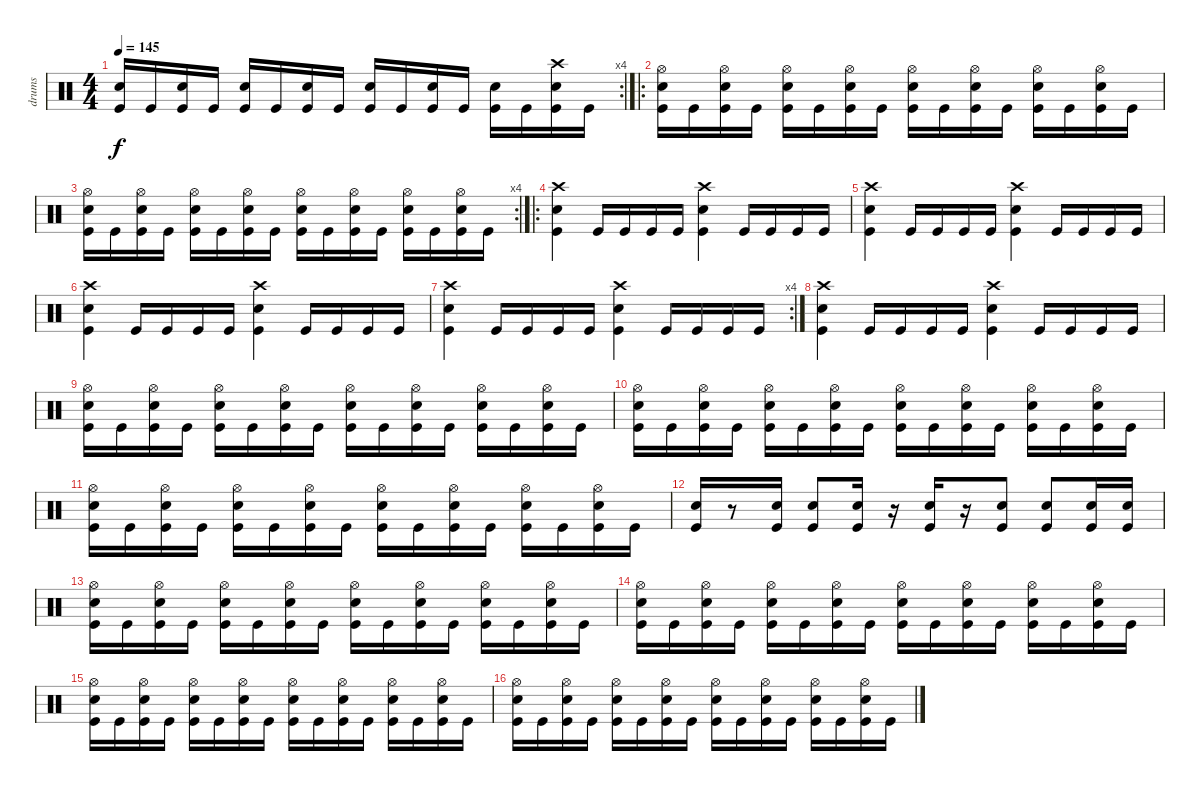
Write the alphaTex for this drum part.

\track ("drums" "drums") {instrument percussion}
\staff {score}
\articulation defaults
\rc 4
\ts (4 4)
\tempo 145
\clef neutral
\ks c
("Electric Snare (hit)" "Kick (hit)").16{dy f} "Kick (hit)".16 ("Electric Snare (hit)" "Kick (hit)").16 "Kick (hit)".16 ("Electric Snare (hit)" "Kick (hit)").16 "Kick (hit)".16 ("Electric Snare (hit)" "Kick (hit)").16 "Kick (hit)".16 ("Electric Snare (hit)" "Kick (hit)").16 "Kick (hit)".16 ("Electric Snare (hit)" "Kick (hit)").16 "Kick (hit)".16 ("Electric Snare (hit)" "Kick (hit)").16 "Kick (hit)".16 ("Electric Snare (hit)" "Crash high (hit)" "Kick (hit)").16 "Kick (hit)".16 |
\ro
("Electric Snare (hit)" "Hi-Hat (open)" "Kick (hit)").16 "Kick (hit)".16 ("Electric Snare (hit)" "Hi-Hat (open)" "Kick (hit)").16 "Kick (hit)".16 ("Electric Snare (hit)" "Hi-Hat (open)" "Kick (hit)").16 "Kick (hit)".16 ("Electric Snare (hit)" "Hi-Hat (open)" "Kick (hit)").16 "Kick (hit)".16 ("Electric Snare (hit)" "Hi-Hat (open)" "Kick (hit)").16 "Kick (hit)".16 ("Electric Snare (hit)" "Hi-Hat (open)" "Kick (hit)").16 "Kick (hit)".16 ("Electric Snare (hit)" "Hi-Hat (open)" "Kick (hit)").16 "Kick (hit)".16 ("Electric Snare (hit)" "Hi-Hat (open)" "Kick (hit)").16 "Kick (hit)".16 |
\rc 4
("Electric Snare (hit)" "Hi-Hat (open)" "Kick (hit)").16 "Kick (hit)".16 ("Electric Snare (hit)" "Hi-Hat (open)" "Kick (hit)").16 "Kick (hit)".16 ("Electric Snare (hit)" "Hi-Hat (open)" "Kick (hit)").16 "Kick (hit)".16 ("Electric Snare (hit)" "Hi-Hat (open)" "Kick (hit)").16 "Kick (hit)".16 ("Electric Snare (hit)" "Hi-Hat (open)" "Kick (hit)").16 "Kick (hit)".16 ("Electric Snare (hit)" "Hi-Hat (open)" "Kick (hit)").16 "Kick (hit)".16 ("Electric Snare (hit)" "Hi-Hat (open)" "Kick (hit)").16 "Kick (hit)".16 ("Electric Snare (hit)" "Hi-Hat (open)" "Kick (hit)").16 "Kick (hit)".16 |
\ro
("Electric Snare (hit)" "Crash high (hit)" "Kick (hit)").4 "Kick (hit)".16 "Kick (hit)".16 "Kick (hit)".16 "Kick (hit)".16 ("Electric Snare (hit)" "Crash high (hit)" "Kick (hit)").4 "Kick (hit)".16 "Kick (hit)".16 "Kick (hit)".16 "Kick (hit)".16 |
("Electric Snare (hit)" "Crash high (hit)" "Kick (hit)").4 "Kick (hit)".16 "Kick (hit)".16 "Kick (hit)".16 "Kick (hit)".16 ("Electric Snare (hit)" "Crash high (hit)" "Kick (hit)").4 "Kick (hit)".16 "Kick (hit)".16 "Kick (hit)".16 "Kick (hit)".16 |
("Electric Snare (hit)" "Crash high (hit)" "Kick (hit)").4 "Kick (hit)".16 "Kick (hit)".16 "Kick (hit)".16 "Kick (hit)".16 ("Electric Snare (hit)" "Crash high (hit)" "Kick (hit)").4 "Kick (hit)".16 "Kick (hit)".16 "Kick (hit)".16 "Kick (hit)".16 |
\rc 4
("Electric Snare (hit)" "Crash high (hit)" "Kick (hit)").4 "Kick (hit)".16 "Kick (hit)".16 "Kick (hit)".16 "Kick (hit)".16 ("Electric Snare (hit)" "Crash high (hit)" "Kick (hit)").4 "Kick (hit)".16 "Kick (hit)".16 "Kick (hit)".16 "Kick (hit)".16 |
("Electric Snare (hit)" "Crash high (hit)" "Kick (hit)").4 "Kick (hit)".16 "Kick (hit)".16 "Kick (hit)".16 "Kick (hit)".16 ("Electric Snare (hit)" "Crash high (hit)" "Kick (hit)").4 "Kick (hit)".16 "Kick (hit)".16 "Kick (hit)".16 "Kick (hit)".16 |
("Electric Snare (hit)" "Hi-Hat (open)" "Kick (hit)").16 "Kick (hit)".16 ("Electric Snare (hit)" "Hi-Hat (open)" "Kick (hit)").16 "Kick (hit)".16 ("Electric Snare (hit)" "Hi-Hat (open)" "Kick (hit)").16 "Kick (hit)".16 ("Electric Snare (hit)" "Hi-Hat (open)" "Kick (hit)").16 "Kick (hit)".16 ("Electric Snare (hit)" "Hi-Hat (open)" "Kick (hit)").16 "Kick (hit)".16 ("Electric Snare (hit)" "Hi-Hat (open)" "Kick (hit)").16 "Kick (hit)".16 ("Electric Snare (hit)" "Hi-Hat (open)" "Kick (hit)").16 "Kick (hit)".16 ("Electric Snare (hit)" "Hi-Hat (open)" "Kick (hit)").16 "Kick (hit)".16 |
("Electric Snare (hit)" "Hi-Hat (open)" "Kick (hit)").16 "Kick (hit)".16 ("Electric Snare (hit)" "Hi-Hat (open)" "Kick (hit)").16 "Kick (hit)".16 ("Electric Snare (hit)" "Hi-Hat (open)" "Kick (hit)").16 "Kick (hit)".16 ("Electric Snare (hit)" "Hi-Hat (open)" "Kick (hit)").16 "Kick (hit)".16 ("Electric Snare (hit)" "Hi-Hat (open)" "Kick (hit)").16 "Kick (hit)".16 ("Electric Snare (hit)" "Hi-Hat (open)" "Kick (hit)").16 "Kick (hit)".16 ("Electric Snare (hit)" "Hi-Hat (open)" "Kick (hit)").16 "Kick (hit)".16 ("Electric Snare (hit)" "Hi-Hat (open)" "Kick (hit)").16 "Kick (hit)".16 |
("Electric Snare (hit)" "Hi-Hat (open)" "Kick (hit)").16 "Kick (hit)".16 ("Electric Snare (hit)" "Hi-Hat (open)" "Kick (hit)").16 "Kick (hit)".16 ("Electric Snare (hit)" "Hi-Hat (open)" "Kick (hit)").16 "Kick (hit)".16 ("Electric Snare (hit)" "Hi-Hat (open)" "Kick (hit)").16 "Kick (hit)".16 ("Electric Snare (hit)" "Hi-Hat (open)" "Kick (hit)").16 "Kick (hit)".16 ("Electric Snare (hit)" "Hi-Hat (open)" "Kick (hit)").16 "Kick (hit)".16 ("Electric Snare (hit)" "Hi-Hat (open)" "Kick (hit)").16 "Kick (hit)".16 ("Electric Snare (hit)" "Hi-Hat (open)" "Kick (hit)").16 "Kick (hit)".16 |
("Electric Snare (hit)" "Kick (hit)").16 r.8 ("Electric Snare (hit)" "Kick (hit)").16 ("Electric Snare (hit)" "Kick (hit)").8 ("Electric Snare (hit)" "Kick (hit)").16 r.16 ("Electric Snare (hit)" "Kick (hit)").16 r.16 ("Electric Snare (hit)" "Kick (hit)").8 ("Electric Snare (hit)" "Kick (hit)").8 ("Electric Snare (hit)" "Kick (hit)").16 ("Electric Snare (hit)" "Kick (hit)").16 |
("Electric Snare (hit)" "Hi-Hat (open)" "Kick (hit)").16 "Kick (hit)".16 ("Electric Snare (hit)" "Hi-Hat (open)" "Kick (hit)").16 "Kick (hit)".16 ("Electric Snare (hit)" "Hi-Hat (open)" "Kick (hit)").16 "Kick (hit)".16 ("Electric Snare (hit)" "Hi-Hat (open)" "Kick (hit)").16 "Kick (hit)".16 ("Electric Snare (hit)" "Hi-Hat (open)" "Kick (hit)").16 "Kick (hit)".16 ("Electric Snare (hit)" "Hi-Hat (open)" "Kick (hit)").16 "Kick (hit)".16 ("Electric Snare (hit)" "Hi-Hat (open)" "Kick (hit)").16 "Kick (hit)".16 ("Electric Snare (hit)" "Hi-Hat (open)" "Kick (hit)").16 "Kick (hit)".16 |
("Electric Snare (hit)" "Hi-Hat (open)" "Kick (hit)").16 "Kick (hit)".16 ("Electric Snare (hit)" "Hi-Hat (open)" "Kick (hit)").16 "Kick (hit)".16 ("Electric Snare (hit)" "Hi-Hat (open)" "Kick (hit)").16 "Kick (hit)".16 ("Electric Snare (hit)" "Hi-Hat (open)" "Kick (hit)").16 "Kick (hit)".16 ("Electric Snare (hit)" "Hi-Hat (open)" "Kick (hit)").16 "Kick (hit)".16 ("Electric Snare (hit)" "Hi-Hat (open)" "Kick (hit)").16 "Kick (hit)".16 ("Electric Snare (hit)" "Hi-Hat (open)" "Kick (hit)").16 "Kick (hit)".16 ("Electric Snare (hit)" "Hi-Hat (open)" "Kick (hit)").16 "Kick (hit)".16 |
("Electric Snare (hit)" "Hi-Hat (open)" "Kick (hit)").16 "Kick (hit)".16 ("Electric Snare (hit)" "Hi-Hat (open)" "Kick (hit)").16 "Kick (hit)".16 ("Electric Snare (hit)" "Hi-Hat (open)" "Kick (hit)").16 "Kick (hit)".16 ("Electric Snare (hit)" "Hi-Hat (open)" "Kick (hit)").16 "Kick (hit)".16 ("Electric Snare (hit)" "Hi-Hat (open)" "Kick (hit)").16 "Kick (hit)".16 ("Electric Snare (hit)" "Hi-Hat (open)" "Kick (hit)").16 "Kick (hit)".16 ("Electric Snare (hit)" "Hi-Hat (open)" "Kick (hit)").16 "Kick (hit)".16 ("Electric Snare (hit)" "Hi-Hat (open)" "Kick (hit)").16 "Kick (hit)".16 |
("Electric Snare (hit)" "Hi-Hat (open)" "Kick (hit)").16 "Kick (hit)".16 ("Electric Snare (hit)" "Hi-Hat (open)" "Kick (hit)").16 "Kick (hit)".16 ("Electric Snare (hit)" "Hi-Hat (open)" "Kick (hit)").16 "Kick (hit)".16 ("Electric Snare (hit)" "Hi-Hat (open)" "Kick (hit)").16 "Kick (hit)".16 ("Electric Snare (hit)" "Hi-Hat (open)" "Kick (hit)").16 "Kick (hit)".16 ("Electric Snare (hit)" "Hi-Hat (open)" "Kick (hit)").16 "Kick (hit)".16 ("Electric Snare (hit)" "Hi-Hat (open)" "Kick (hit)").16 "Kick (hit)".16 ("Electric Snare (hit)" "Hi-Hat (open)" "Kick (hit)").16 "Kick (hit)".16
